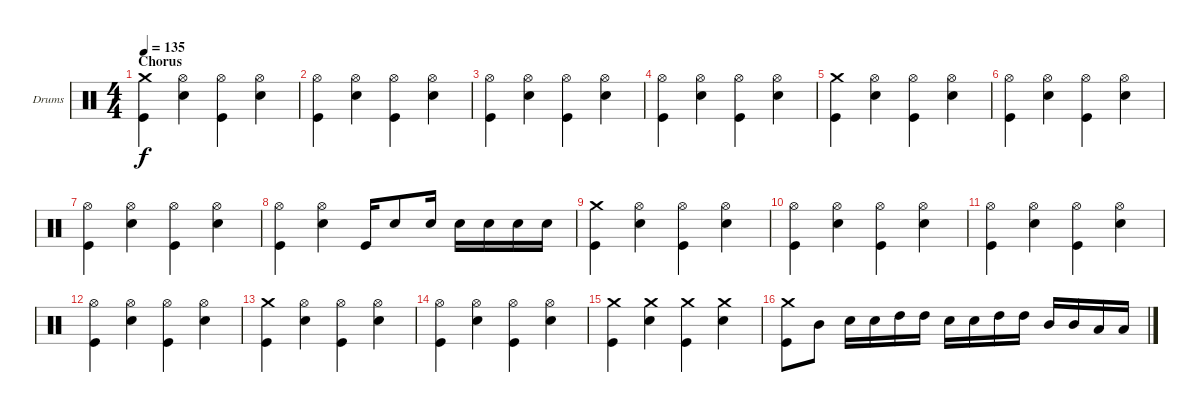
\defaultSystemsLayout 4
\bracketExtendMode groupsimilarinstruments
\firstSystemTrackNameOrientation horizontal
\otherSystemsTrackNameOrientation horizontal
\track ("Drumkit" "Drums") {instrument percussion}
\staff {score}
\articulation defaults
\ts (4 4)
\section ("" "Chorus")
\tempo 135
\clef neutral
\scale
0.5
\ks c
("Crash medium (hit)" "Kick (hit)").4{dy f} ("Hi-Hat (open)" "Snare (hit) 2").4 ("Hi-Hat (open)" "Kick (hit)").4 ("Hi-Hat (open)" "Snare (hit) 2").4 |
\scale
0.5 ("Hi-Hat (open)" "Kick (hit)").4 ("Hi-Hat (open)" "Snare (hit) 2").4 ("Hi-Hat (open)" "Kick (hit)").4 ("Hi-Hat (open)" "Snare (hit) 2").4 |
\scale
0.5 ("Hi-Hat (open)" "Kick (hit)").4 ("Hi-Hat (open)" "Snare (hit) 2").4 ("Hi-Hat (open)" "Kick (hit)").4 ("Hi-Hat (open)" "Snare (hit) 2").4 |
\scale
0.5 ("Hi-Hat (open)" "Kick (hit)").4 ("Hi-Hat (open)" "Snare (hit) 2").4 ("Hi-Hat (open)" "Kick (hit)").4 ("Hi-Hat (open)" "Snare (hit) 2").4 |
\scale
0.5 ("Crash medium (hit)" "Kick (hit)").4 ("Hi-Hat (open)" "Snare (hit) 2").4 ("Hi-Hat (open)" "Kick (hit)").4 ("Hi-Hat (open)" "Snare (hit) 2").4 |
\scale
0.5 ("Hi-Hat (open)" "Kick (hit)").4 ("Hi-Hat (open)" "Snare (hit) 2").4 ("Hi-Hat (open)" "Kick (hit)").4 ("Hi-Hat (open)" "Snare (hit) 2").4 |
\scale
0.5 ("Hi-Hat (open)" "Kick (hit)").4 ("Hi-Hat (open)" "Snare (hit) 2").4 ("Hi-Hat (open)" "Kick (hit)").4 ("Hi-Hat (open)" "Snare (hit) 2").4 |
\scale
0.5 ("Hi-Hat (open)" "Kick (hit)").4 ("Hi-Hat (open)" "Snare (hit) 2").4 "Kick (hit)".16 "Snare (hit) 2".8 "Snare (hit) 2".16 "Snare (hit) 2".16 "Snare (hit) 2".16 "Snare (hit) 2".16 "Snare (hit) 2".16 |
\scale
0.5 ("Crash medium (hit)" "Kick (hit)").4 ("Hi-Hat (open)" "Snare (hit) 2").4 ("Hi-Hat (open)" "Kick (hit)").4 ("Hi-Hat (open)" "Snare (hit) 2").4 |
\scale
0.5 ("Hi-Hat (open)" "Kick (hit)").4 ("Hi-Hat (open)" "Snare (hit) 2").4 ("Hi-Hat (open)" "Kick (hit)").4 ("Hi-Hat (open)" "Snare (hit) 2").4 |
\scale
0.5 ("Hi-Hat (open)" "Kick (hit)").4 ("Hi-Hat (open)" "Snare (hit) 2").4 ("Hi-Hat (open)" "Kick (hit)").4 ("Hi-Hat (open)" "Snare (hit) 2").4 |
\scale
0.5 ("Hi-Hat (open)" "Kick (hit)").4 ("Hi-Hat (open)" "Snare (hit) 2").4 ("Hi-Hat (open)" "Kick (hit)").4 ("Hi-Hat (open)" "Snare (hit) 2").4 |
\scale
0.5 ("Crash medium (hit)" "Kick (hit)").4 ("Hi-Hat (open)" "Snare (hit) 2").4 ("Hi-Hat (open)" "Kick (hit)").4 ("Hi-Hat (open)" "Snare (hit) 2").4 |
\scale
0.5 ("Hi-Hat (open)" "Kick (hit)").4 ("Hi-Hat (open)" "Snare (hit) 2").4 ("Hi-Hat (open)" "Kick (hit)").4 ("Hi-Hat (open)" "Snare (hit) 2").4 |
\scale
0.5 ("Crash medium (hit)" "Kick (hit)").4 ("Crash medium (hit)" "Snare (hit) 2").4 ("Crash medium (hit)" "Kick (hit)").4 ("Crash medium (hit)" "Snare (hit) 2").4 |
\scale
0.5 ("Crash medium (hit)" "Kick (hit)").8 "Mid Tom (hit)".8 "Snare (hit) 2".16 "Snare (hit) 2".16 "High Tom (hit)".16 "High Tom (hit)".16 "Snare (hit) 2".16 "Snare (hit) 2".16 "High Tom (hit)".16 "High Tom (hit)".16 "Mid Tom (hit)".16 "Mid Tom (hit)".16 "Low Tom (hit)".16 "Low Tom (hit)".16
